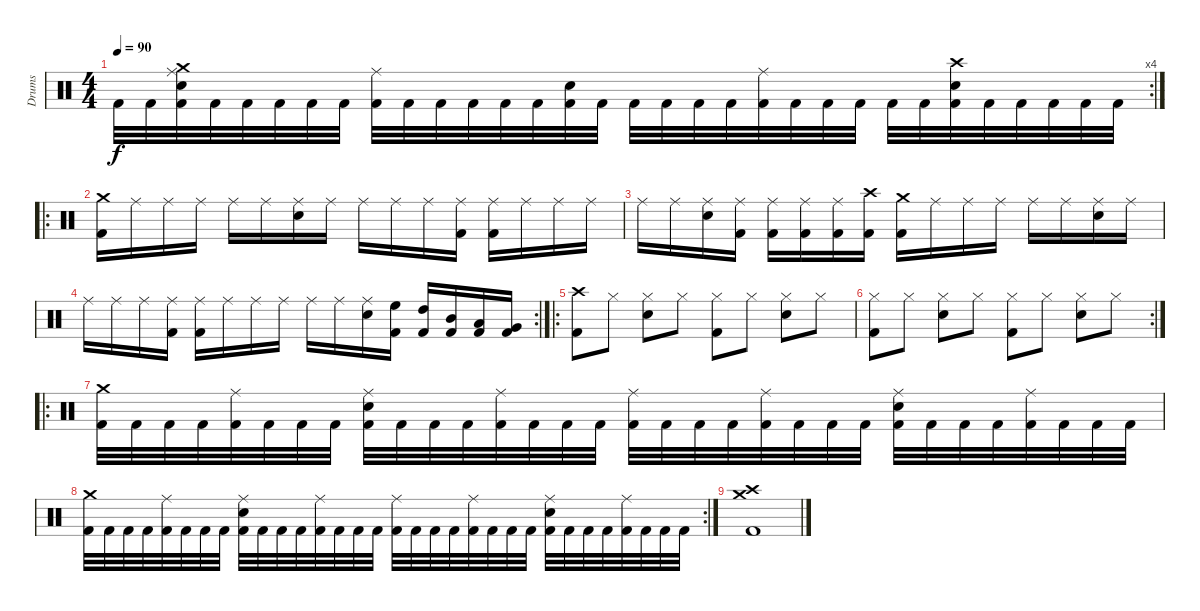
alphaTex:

\track ("Drums" "Drums") {instrument percussion}
\staff {score}
\articulation defaults
\rc 4
\ts (4 4)
\tempo 90
\clef neutral
\ks c "Kick (hit) 2".32{dy f} "Kick (hit) 2".32
("Kick (hit) 2" "Ride (middle)" "Snare (hit) 2" "Crash medium (hit)").32 "Kick (hit) 2".32 "Kick (hit) 2".32 "Kick (hit) 2".32 "Kick (hit) 2".32 "Kick (hit) 2".32 ("Kick (hit) 2" "Ride (middle)").32 "Kick (hit) 2".32 "Kick (hit) 2".32 "Kick (hit) 2".32 "Kick (hit) 2".32 "Kick (hit) 2".32 ("Kick (hit) 2" "Snare (hit) 2").32 "Kick (hit) 2".32 "Kick (hit) 2".32 "Kick (hit) 2".32 "Kick (hit) 2".32 "Kick (hit) 2".32 ("Kick (hit) 2" "Ride (middle)").32 "Kick (hit) 2".32 "Kick (hit) 2".32 "Kick (hit) 2".32 "Kick (hit) 2".32 "Kick (hit) 2".32 ("Kick (hit) 2" "Snare (hit) 2" "Crash high (hit)").32 "Kick (hit) 2".32 "Kick (hit) 2".32 "Kick (hit) 2".32 "Kick (hit) 2".32 "Kick (hit) 2".32 |
\ro
("Kick (hit) 2" "Crash medium (hit)").16 "Ride (middle)".16 "Ride (middle)".16 "Ride (middle)".16 "Ride (middle)".16 "Ride (middle)".16 ("Ride (middle)" "Snare (hit) 2").16 "Ride (middle)".16 "Ride (middle)".16 "Ride (middle)".16 "Ride (middle)".16 ("Kick (hit) 2" "Ride (middle)").16 ("Kick (hit) 2" "Ride (middle)").16 "Ride (middle)".16 "Ride (middle)".16 "Ride (middle)".16 |
"Ride (middle)".16 "Ride (middle)".16 ("Ride (middle)" "Snare (hit) 2").16 ("Kick (hit) 2" "Ride (middle)").16 ("Kick (hit) 2" "Ride (middle)").16 ("Kick (hit) 2" "Ride (middle)").16 ("Kick (hit) 2" "Ride (middle)").16 ("Kick (hit) 2" "Crash high (hit)").16 ("Kick (hit) 2" "Crash medium (hit)").16 "Ride (middle)".16 "Ride (middle)".16 "Ride (middle)".16 "Ride (middle)".16 "Ride (middle)".16 ("Ride (middle)" "Snare (hit) 2").16 "Ride (middle)".16 |
\rc 2 "Ride (middle)".16 "Ride (middle)".16 "Ride (middle)".16
("Kick (hit) 2" "Ride (middle)").16 ("Kick (hit) 2" "Ride (middle)").16 "Ride (middle)".16 "Ride (middle)".16 "Ride (middle)".16 "Ride (middle)".16 "Ride (middle)".16 ("Ride (middle)" "Snare (hit) 2").16 ("Kick (hit) 2" "High Floor Tom (hit)").16 ("Kick (hit) 2" "High Tom (hit)").16 ("Kick (hit) 2" "Mid Tom (hit)").16 ("Kick (hit) 2" "Low Tom (hit)").16 ("Kick (hit) 2" "Very Low Tom (hit)").16 |
\ro
("Kick (hit) 2" "Crash high (hit)").8 "Hi-Hat (closed)".8 ("Hi-Hat (closed)" "Snare (hit) 2").8 "Hi-Hat (closed)".8 ("Kick (hit) 2" "Hi-Hat (closed)").8 "Hi-Hat (closed)".8 ("Hi-Hat (closed)" "Snare (hit) 2").8 "Hi-Hat (closed)".8 |
\rc 2
("Kick (hit) 2" "Hi-Hat (closed)").8 "Hi-Hat (closed)".8 ("Hi-Hat (closed)" "Snare (hit) 2").8 "Hi-Hat (closed)".8 ("Kick (hit) 2" "Hi-Hat (closed)").8 "Hi-Hat (closed)".8 ("Hi-Hat (closed)" "Snare (hit) 2").8 "Hi-Hat (closed)".8 |
\ro
("Kick (hit) 2" "Crash medium (hit)").32 "Kick (hit) 2".32 "Kick (hit) 2".32 "Kick (hit) 2".32 ("Kick (hit) 2" "Ride (middle)").32 "Kick (hit) 2".32 "Kick (hit) 2".32 "Kick (hit) 2".32 ("Kick (hit) 2" "Ride (middle)" "Snare (hit) 2").32 "Kick (hit) 2".32 "Kick (hit) 2".32 "Kick (hit) 2".32 ("Kick (hit) 2" "Ride (middle)").32 "Kick (hit) 2".32 "Kick (hit) 2".32 "Kick (hit) 2".32 ("Kick (hit) 2" "Ride (middle)").32 "Kick (hit) 2".32 "Kick (hit) 2".32 "Kick (hit) 2".32 ("Kick (hit) 2" "Ride (middle)").32 "Kick (hit) 2".32 "Kick (hit) 2".32 "Kick (hit) 2".32 ("Kick (hit) 2" "Ride (middle)" "Snare (hit) 2").32 "Kick (hit) 2".32 "Kick (hit) 2".32 "Kick (hit) 2".32 ("Kick (hit) 2" "Ride (middle)").32 "Kick (hit) 2".32 "Kick (hit) 2".32 "Kick (hit) 2".32 |
\rc 2
("Kick (hit) 2" "Crash medium (hit)").32 "Kick (hit) 2".32 "Kick (hit) 2".32 "Kick (hit) 2".32 ("Kick (hit) 2" "Ride (middle)").32 "Kick (hit) 2".32 "Kick (hit) 2".32 "Kick (hit) 2".32 ("Kick (hit) 2" "Ride (middle)" "Snare (hit) 2").32 "Kick (hit) 2".32 "Kick (hit) 2".32 "Kick (hit) 2".32 ("Kick (hit) 2" "Ride (middle)").32 "Kick (hit) 2".32 "Kick (hit) 2".32 "Kick (hit) 2".32 ("Kick (hit) 2" "Ride (middle)").32 "Kick (hit) 2".32 "Kick (hit) 2".32 "Kick (hit) 2".32 ("Kick (hit) 2" "Ride (middle)").32 "Kick (hit) 2".32 "Kick (hit) 2".32 "Kick (hit) 2".32 ("Kick (hit) 2" "Ride (middle)" "Snare (hit) 2").32 "Kick (hit) 2".32 "Kick (hit) 2".32 "Kick (hit) 2".32 ("Kick (hit) 2" "Ride (middle)").32 "Kick (hit) 2".32 "Kick (hit) 2".32 "Kick (hit) 2".32 |
("Kick (hit) 2" "Crash high (hit)" "Crash medium (hit)").1
